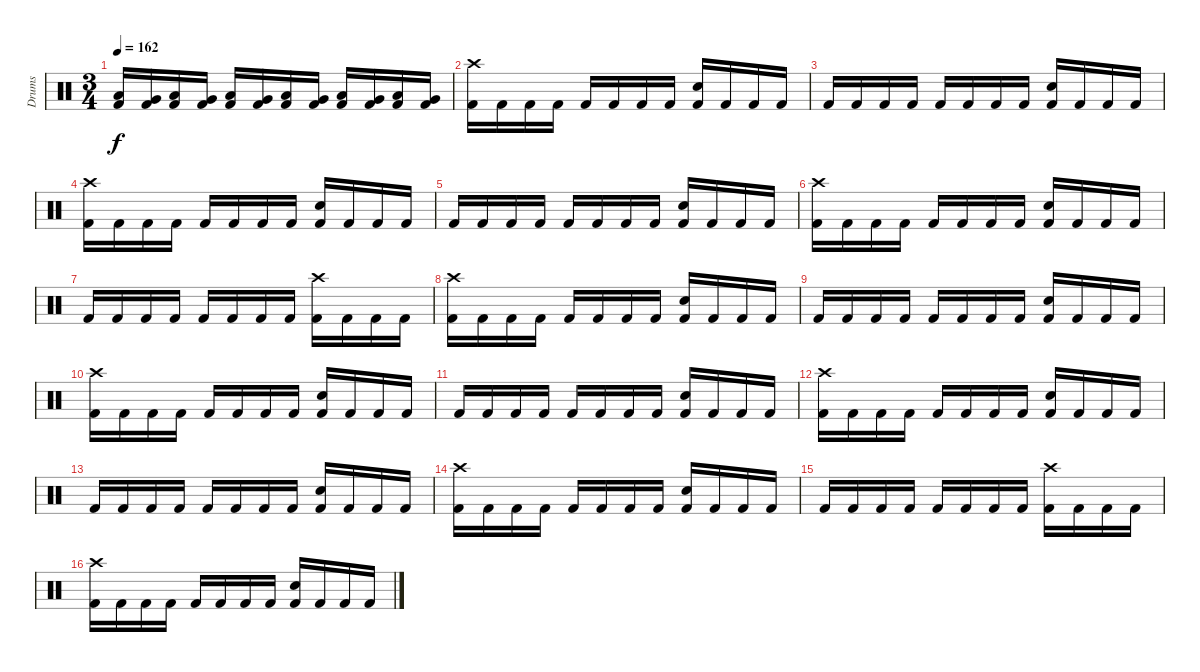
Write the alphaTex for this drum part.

\track ("Drums" "Drums") {instrument percussion}
\staff {score}
\articulation defaults
\ts (3 4)
\tempo 162
\clef neutral
\ks c
("Low Tom (hit)" "Kick (hit) 2").16{dy f} ("Very Low Tom (hit)" "Kick (hit) 2").16 ("Low Floor Tom (hit)" "Kick (hit) 2").16 ("Very Low Tom (hit)" "Kick (hit) 2").16 ("Low Tom (hit)" "Kick (hit) 2").16 ("Very Low Tom (hit)" "Kick (hit) 2").16 ("Low Floor Tom (hit)" "Kick (hit) 2").16 ("Very Low Tom (hit)" "Kick (hit) 2").16 ("Low Tom (hit)" "Kick (hit) 2").16 ("Very Low Tom (hit)" "Kick (hit) 2").16 ("Low Floor Tom (hit)" "Kick (hit) 2").16 ("Very Low Tom (hit)" "Kick (hit) 2").16 |
("Crash high (hit)" "Kick (hit) 2").16 "Kick (hit) 2".16 "Kick (hit) 2".16 "Kick (hit) 2".16 "Kick (hit) 2".16 "Kick (hit) 2".16 "Kick (hit) 2".16 "Kick (hit) 2".16 ("Snare (hit) 2" "Kick (hit) 2").16 "Kick (hit) 2".16 "Kick (hit) 2".16 "Kick (hit) 2".16 |
"Kick (hit) 2".16 "Kick (hit) 2".16 "Kick (hit) 2".16 "Kick (hit) 2".16 "Kick (hit) 2".16 "Kick (hit) 2".16 "Kick (hit) 2".16 "Kick (hit) 2".16 ("Snare (hit) 2" "Kick (hit) 2").16 "Kick (hit) 2".16 "Kick (hit) 2".16 "Kick (hit) 2".16 |
("Crash high (hit)" "Kick (hit) 2").16 "Kick (hit) 2".16 "Kick (hit) 2".16 "Kick (hit) 2".16 "Kick (hit) 2".16 "Kick (hit) 2".16 "Kick (hit) 2".16 "Kick (hit) 2".16 ("Snare (hit) 2" "Kick (hit) 2").16 "Kick (hit) 2".16 "Kick (hit) 2".16 "Kick (hit) 2".16 |
"Kick (hit) 2".16 "Kick (hit) 2".16 "Kick (hit) 2".16 "Kick (hit) 2".16 "Kick (hit) 2".16 "Kick (hit) 2".16 "Kick (hit) 2".16 "Kick (hit) 2".16 ("Snare (hit) 2" "Kick (hit) 2").16 "Kick (hit) 2".16 "Kick (hit) 2".16 "Kick (hit) 2".16 |
("Crash high (hit)" "Kick (hit) 2").16 "Kick (hit) 2".16 "Kick (hit) 2".16 "Kick (hit) 2".16 "Kick (hit) 2".16 "Kick (hit) 2".16 "Kick (hit) 2".16 "Kick (hit) 2".16 ("Snare (hit) 2" "Kick (hit) 2").16 "Kick (hit) 2".16 "Kick (hit) 2".16 "Kick (hit) 2".16 |
"Kick (hit) 2".16 "Kick (hit) 2".16 "Kick (hit) 2".16 "Kick (hit) 2".16 "Kick (hit) 2".16 "Kick (hit) 2".16 "Kick (hit) 2".16 "Kick (hit) 2".16 ("Crash high (hit)" "Kick (hit) 2").16 "Kick (hit) 2".16 "Kick (hit) 2".16 "Kick (hit) 2".16 |
("Crash high (hit)" "Kick (hit) 2").16 "Kick (hit) 2".16 "Kick (hit) 2".16 "Kick (hit) 2".16 "Kick (hit) 2".16 "Kick (hit) 2".16 "Kick (hit) 2".16 "Kick (hit) 2".16 ("Snare (hit) 2" "Kick (hit) 2").16 "Kick (hit) 2".16 "Kick (hit) 2".16 "Kick (hit) 2".16 |
"Kick (hit) 2".16 "Kick (hit) 2".16 "Kick (hit) 2".16 "Kick (hit) 2".16 "Kick (hit) 2".16 "Kick (hit) 2".16 "Kick (hit) 2".16 "Kick (hit) 2".16 ("Snare (hit) 2" "Kick (hit) 2").16 "Kick (hit) 2".16 "Kick (hit) 2".16 "Kick (hit) 2".16 |
("Crash high (hit)" "Kick (hit) 2").16 "Kick (hit) 2".16 "Kick (hit) 2".16 "Kick (hit) 2".16 "Kick (hit) 2".16 "Kick (hit) 2".16 "Kick (hit) 2".16 "Kick (hit) 2".16 ("Snare (hit) 2" "Kick (hit) 2").16 "Kick (hit) 2".16 "Kick (hit) 2".16 "Kick (hit) 2".16 |
"Kick (hit) 2".16 "Kick (hit) 2".16 "Kick (hit) 2".16 "Kick (hit) 2".16 "Kick (hit) 2".16 "Kick (hit) 2".16 "Kick (hit) 2".16 "Kick (hit) 2".16 ("Snare (hit) 2" "Kick (hit) 2").16 "Kick (hit) 2".16 "Kick (hit) 2".16 "Kick (hit) 2".16 |
("Crash high (hit)" "Kick (hit) 2").16 "Kick (hit) 2".16 "Kick (hit) 2".16 "Kick (hit) 2".16 "Kick (hit) 2".16 "Kick (hit) 2".16 "Kick (hit) 2".16 "Kick (hit) 2".16 ("Snare (hit) 2" "Kick (hit) 2").16 "Kick (hit) 2".16 "Kick (hit) 2".16 "Kick (hit) 2".16 |
"Kick (hit) 2".16 "Kick (hit) 2".16 "Kick (hit) 2".16 "Kick (hit) 2".16 "Kick (hit) 2".16 "Kick (hit) 2".16 "Kick (hit) 2".16 "Kick (hit) 2".16 ("Snare (hit) 2" "Kick (hit) 2").16 "Kick (hit) 2".16 "Kick (hit) 2".16 "Kick (hit) 2".16 |
("Crash high (hit)" "Kick (hit) 2").16 "Kick (hit) 2".16 "Kick (hit) 2".16 "Kick (hit) 2".16 "Kick (hit) 2".16 "Kick (hit) 2".16 "Kick (hit) 2".16 "Kick (hit) 2".16 ("Snare (hit) 2" "Kick (hit) 2").16 "Kick (hit) 2".16 "Kick (hit) 2".16 "Kick (hit) 2".16 |
"Kick (hit) 2".16 "Kick (hit) 2".16 "Kick (hit) 2".16 "Kick (hit) 2".16 "Kick (hit) 2".16 "Kick (hit) 2".16 "Kick (hit) 2".16 "Kick (hit) 2".16 ("Crash high (hit)" "Kick (hit) 2").16 "Kick (hit) 2".16 "Kick (hit) 2".16 "Kick (hit) 2".16 |
("Crash high (hit)" "Kick (hit) 2").16 "Kick (hit) 2".16 "Kick (hit) 2".16 "Kick (hit) 2".16 "Kick (hit) 2".16 "Kick (hit) 2".16 "Kick (hit) 2".16 "Kick (hit) 2".16 ("Snare (hit) 2" "Kick (hit) 2").16 "Kick (hit) 2".16 "Kick (hit) 2".16 "Kick (hit) 2".16
